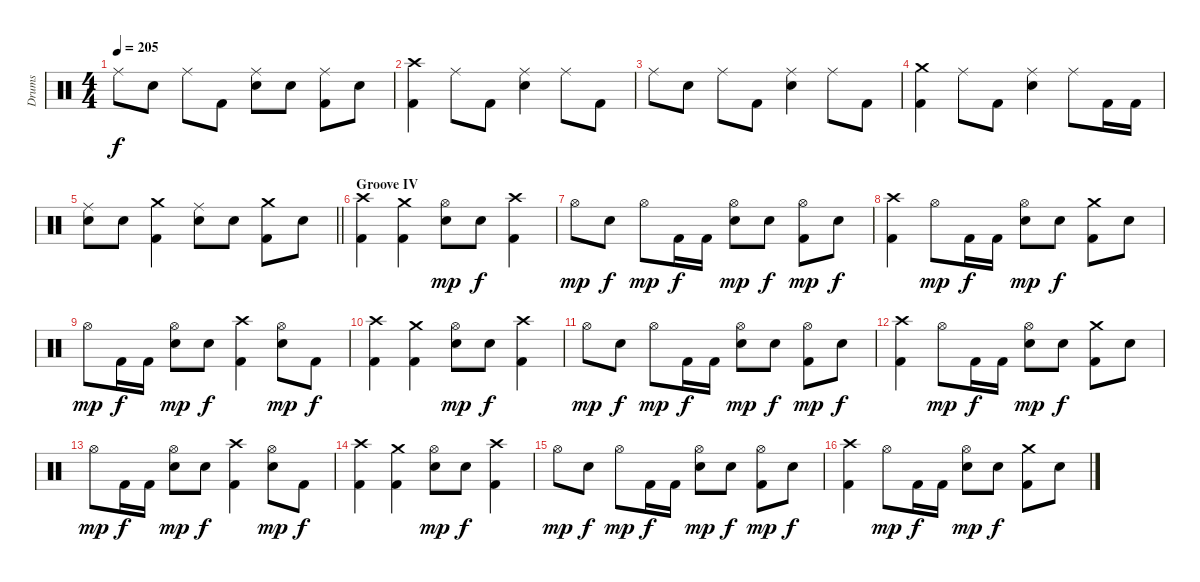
\track ("Drums" "Drums") {instrument percussion}
\staff {score}
\articulation defaults
\ts (4 4)
\tempo 205
\clef neutral
\ks c "Ride (middle)".8{dy f} "Snare (hit) 2".8 "Ride (middle)".8 "Kick (hit) 2".8
("Ride (middle)" "Snare (hit) 2").8 "Snare (hit) 2".8 ("Ride (middle)" "Kick (hit) 2").8 "Snare (hit) 2".8 |
("Crash high (hit)" "Kick (hit) 2").4 "Ride (middle)".8 "Kick (hit) 2".8 ("Ride (middle)" "Snare (hit) 2").4 "Ride (middle)".8 "Kick (hit) 2".8 |
"Ride (middle)".8 "Snare (hit) 2".8 "Ride (middle)".8 "Kick (hit) 2".8 ("Ride (middle)" "Snare (hit) 2").4 "Ride (middle)".8 "Kick (hit) 2".8 |
("Crash medium (hit)" "Kick (hit) 2").4 "Ride (middle)".8 "Kick (hit) 2".8 ("Ride (middle)" "Snare (hit) 2").4 "Ride (middle)".8 "Kick (hit) 2".16 "Kick (hit) 2".16 |
\barLineRight lightlight
("Ride (middle)" "Snare (hit) 2").8 "Snare (hit) 2".8 ("Crash medium (hit)" "Kick (hit) 2").4 ("Ride (middle)" "Snare (hit) 2").8 "Snare (hit) 2".8 ("Crash medium (hit)" "Kick (hit) 2").8 "Snare (hit) 2".8 |
\section ("" "Groove IV")
("Crash high (hit)" "Kick (hit) 2").4 ("Crash medium (hit)" "Kick (hit) 2").4 ("Hi-Hat (open)" "Snare (hit) 2").8{dy mp} "Snare (hit) 2".8{dy f} ("Crash high (hit)" "Kick (hit) 2").4 |
"Hi-Hat (open)".8{dy mp} "Snare (hit) 2".8{dy f} "Hi-Hat (open)".8{dy mp} "Kick (hit) 2".16{dy f} "Kick (hit) 2".16 ("Hi-Hat (open)" "Snare (hit) 2").8{dy mp} "Snare (hit) 2".8{dy f} ("Hi-Hat (open)" "Kick (hit) 2").8{dy mp} "Snare (hit) 2".8{dy f} |
("Crash high (hit)" "Kick (hit) 2").4 "Hi-Hat (open)".8{dy mp} "Kick (hit) 2".16{dy f} "Kick (hit) 2".16 ("Hi-Hat (open)" "Snare (hit) 2").8{dy mp} "Snare (hit) 2".8{dy f} ("Crash medium (hit)" "Kick (hit) 2").8 "Snare (hit) 2".8 |
"Hi-Hat (open)".8{dy mp} "Kick (hit) 2".16{dy f} "Kick (hit) 2".16 ("Hi-Hat (open)" "Snare (hit) 2").8{dy mp} "Snare (hit) 2".8{dy f} ("Crash high (hit)" "Kick (hit) 2").4 ("Hi-Hat (open)" "Snare (hit) 2").8{dy mp} "Kick (hit) 2".8{dy f} |
("Crash high (hit)" "Kick (hit) 2").4 ("Crash medium (hit)" "Kick (hit) 2").4 ("Hi-Hat (open)" "Snare (hit) 2").8{dy mp} "Snare (hit) 2".8{dy f} ("Crash high (hit)" "Kick (hit) 2").4 |
"Hi-Hat (open)".8{dy mp} "Snare (hit) 2".8{dy f} "Hi-Hat (open)".8{dy mp} "Kick (hit) 2".16{dy f} "Kick (hit) 2".16 ("Hi-Hat (open)" "Snare (hit) 2").8{dy mp} "Snare (hit) 2".8{dy f} ("Hi-Hat (open)" "Kick (hit) 2").8{dy mp} "Snare (hit) 2".8{dy f} |
("Crash high (hit)" "Kick (hit) 2").4 "Hi-Hat (open)".8{dy mp} "Kick (hit) 2".16{dy f} "Kick (hit) 2".16 ("Hi-Hat (open)" "Snare (hit) 2").8{dy mp} "Snare (hit) 2".8{dy f} ("Crash medium (hit)" "Kick (hit) 2").8 "Snare (hit) 2".8 |
"Hi-Hat (open)".8{dy mp} "Kick (hit) 2".16{dy f} "Kick (hit) 2".16 ("Hi-Hat (open)" "Snare (hit) 2").8{dy mp} "Snare (hit) 2".8{dy f} ("Crash high (hit)" "Kick (hit) 2").4 ("Hi-Hat (open)" "Snare (hit) 2").8{dy mp} "Kick (hit) 2".8{dy f} |
("Crash high (hit)" "Kick (hit) 2").4 ("Crash medium (hit)" "Kick (hit) 2").4 ("Hi-Hat (open)" "Snare (hit) 2").8{dy mp} "Snare (hit) 2".8{dy f} ("Crash high (hit)" "Kick (hit) 2").4 |
"Hi-Hat (open)".8{dy mp} "Snare (hit) 2".8{dy f} "Hi-Hat (open)".8{dy mp} "Kick (hit) 2".16{dy f} "Kick (hit) 2".16 ("Hi-Hat (open)" "Snare (hit) 2").8{dy mp} "Snare (hit) 2".8{dy f} ("Hi-Hat (open)" "Kick (hit) 2").8{dy mp} "Snare (hit) 2".8{dy f} |
("Crash high (hit)" "Kick (hit) 2").4 "Hi-Hat (open)".8{dy mp} "Kick (hit) 2".16{dy f} "Kick (hit) 2".16 ("Hi-Hat (open)" "Snare (hit) 2").8{dy mp} "Snare (hit) 2".8{dy f} ("Crash medium (hit)" "Kick (hit) 2").8 "Snare (hit) 2".8
